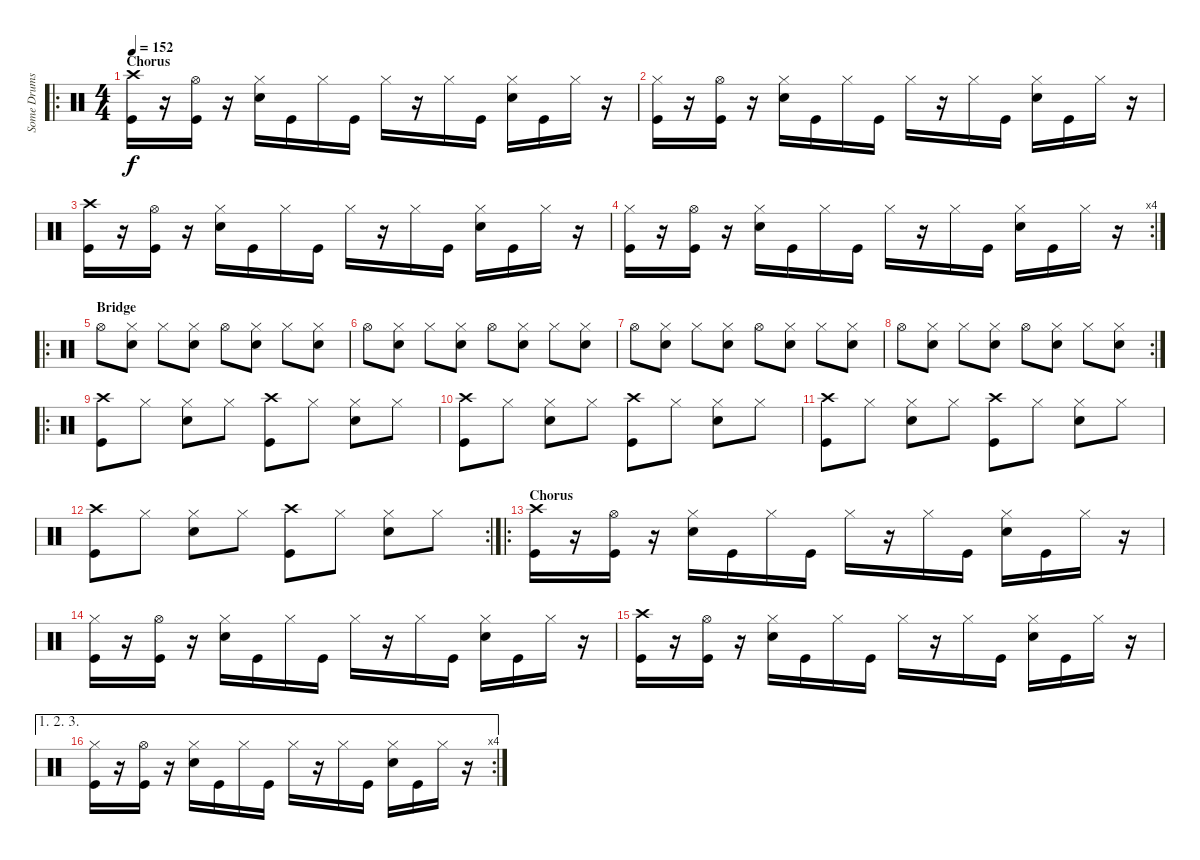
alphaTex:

\track ("Some Drums" "Some Drums") {instrument percussion}
\staff {score}
\articulation defaults
\ro
\ts (4 4)
\section ("" "Chorus")
\tempo 152
\clef neutral
\ks c
("Crash high (hit)" "Kick (hit)").16{dy f} r.16 ("Hi-Hat (open)" "Kick (hit)").16 r.16 ("Hi-Hat (closed)" "Electric Snare (hit)").16 "Kick (hit)".16 "Hi-Hat (closed)".16 "Kick (hit)".16 "Hi-Hat (closed)".16 r.16 "Hi-Hat (closed)".16 "Kick (hit)".16 ("Hi-Hat (closed)" "Electric Snare (hit)").16 "Kick (hit)".16 "Hi-Hat (closed)".16 r.16 |
("Hi-Hat (closed)" "Kick (hit)").16 r.16 ("Hi-Hat (open)" "Kick (hit)").16 r.16 ("Hi-Hat (closed)" "Electric Snare (hit)").16 "Kick (hit)".16 "Hi-Hat (closed)".16 "Kick (hit)".16 "Hi-Hat (closed)".16 r.16 "Hi-Hat (closed)".16 "Kick (hit)".16 ("Hi-Hat (closed)" "Electric Snare (hit)").16 "Kick (hit)".16 "Hi-Hat (closed)".16 r.16 |
("Crash high (hit)" "Kick (hit)").16 r.16 ("Hi-Hat (open)" "Kick (hit)").16 r.16 ("Hi-Hat (closed)" "Electric Snare (hit)").16 "Kick (hit)".16 "Hi-Hat (closed)".16 "Kick (hit)".16 "Hi-Hat (closed)".16 r.16 "Hi-Hat (closed)".16 "Kick (hit)".16 ("Hi-Hat (closed)" "Electric Snare (hit)").16 "Kick (hit)".16 "Hi-Hat (closed)".16 r.16 |
\rc 4
("Hi-Hat (closed)" "Kick (hit)").16 r.16 ("Hi-Hat (open)" "Kick (hit)").16 r.16 ("Hi-Hat (closed)" "Electric Snare (hit)").16 "Kick (hit)".16 "Hi-Hat (closed)".16 "Kick (hit)".16 "Hi-Hat (closed)".16 r.16 "Hi-Hat (closed)".16 "Kick (hit)".16 ("Hi-Hat (closed)" "Electric Snare (hit)").16 "Kick (hit)".16 "Hi-Hat (closed)".16 r.16 |
\ro
\section ("" "Bridge")
"Hi-Hat (open)".8 ("Hi-Hat (closed)" "Electric Snare (hit)").8 "Hi-Hat (closed)".8 ("Hi-Hat (closed)" "Electric Snare (hit)").8 "Hi-Hat (open)".8 ("Hi-Hat (closed)" "Electric Snare (hit)").8 "Hi-Hat (closed)".8 ("Hi-Hat (closed)" "Electric Snare (hit)").8 |
"Hi-Hat (open)".8 ("Hi-Hat (closed)" "Electric Snare (hit)").8 "Hi-Hat (closed)".8 ("Hi-Hat (closed)" "Electric Snare (hit)").8 "Hi-Hat (open)".8 ("Hi-Hat (closed)" "Electric Snare (hit)").8 "Hi-Hat (closed)".8 ("Hi-Hat (closed)" "Electric Snare (hit)").8 |
"Hi-Hat (open)".8 ("Hi-Hat (closed)" "Electric Snare (hit)").8 "Hi-Hat (closed)".8 ("Hi-Hat (closed)" "Electric Snare (hit)").8 "Hi-Hat (open)".8 ("Hi-Hat (closed)" "Electric Snare (hit)").8 "Hi-Hat (closed)".8 ("Hi-Hat (closed)" "Electric Snare (hit)").8 |
\rc 2 "Hi-Hat (open)".8
("Hi-Hat (closed)" "Electric Snare (hit)").8 "Hi-Hat (closed)".8 ("Hi-Hat (closed)" "Electric Snare (hit)").8 "Hi-Hat (open)".8 ("Hi-Hat (closed)" "Electric Snare (hit)").8 "Hi-Hat (closed)".8 ("Hi-Hat (closed)" "Electric Snare (hit)").8 |
\ro
("Crash high (hit)" "Kick (hit)").8 "Hi-Hat (closed)".8 ("Hi-Hat (closed)" "Electric Snare (hit)").8 "Hi-Hat (closed)".8 ("Crash high (hit)" "Kick (hit)").8 "Hi-Hat (closed)".8 ("Hi-Hat (closed)" "Electric Snare (hit)").8 "Hi-Hat (closed)".8 |
("Crash high (hit)" "Kick (hit)").8 "Hi-Hat (closed)".8 ("Hi-Hat (closed)" "Electric Snare (hit)").8 "Hi-Hat (closed)".8 ("Crash high (hit)" "Kick (hit)").8 "Hi-Hat (closed)".8 ("Hi-Hat (closed)" "Electric Snare (hit)").8 "Hi-Hat (closed)".8 |
("Crash high (hit)" "Kick (hit)").8 "Hi-Hat (closed)".8 ("Hi-Hat (closed)" "Electric Snare (hit)").8 "Hi-Hat (closed)".8 ("Crash high (hit)" "Kick (hit)").8 "Hi-Hat (closed)".8 ("Hi-Hat (closed)" "Electric Snare (hit)").8 "Hi-Hat (closed)".8 |
\rc 2
("Crash high (hit)" "Kick (hit)").8 "Hi-Hat (closed)".8 ("Hi-Hat (closed)" "Electric Snare (hit)").8 "Hi-Hat (closed)".8 ("Crash high (hit)" "Kick (hit)").8 "Hi-Hat (closed)".8 ("Hi-Hat (closed)" "Electric Snare (hit)").8 "Hi-Hat (closed)".8 |
\ro
\section ("" "Chorus")
("Crash high (hit)" "Kick (hit)").16 r.16 ("Hi-Hat (open)" "Kick (hit)").16 r.16 ("Hi-Hat (closed)" "Electric Snare (hit)").16 "Kick (hit)".16 "Hi-Hat (closed)".16 "Kick (hit)".16 "Hi-Hat (closed)".16 r.16 "Hi-Hat (closed)".16 "Kick (hit)".16 ("Hi-Hat (closed)" "Electric Snare (hit)").16 "Kick (hit)".16 "Hi-Hat (closed)".16 r.16 |
("Hi-Hat (closed)" "Kick (hit)").16 r.16 ("Hi-Hat (open)" "Kick (hit)").16 r.16 ("Hi-Hat (closed)" "Electric Snare (hit)").16 "Kick (hit)".16 "Hi-Hat (closed)".16 "Kick (hit)".16 "Hi-Hat (closed)".16 r.16 "Hi-Hat (closed)".16 "Kick (hit)".16 ("Hi-Hat (closed)" "Electric Snare (hit)").16 "Kick (hit)".16 "Hi-Hat (closed)".16 r.16 |
("Crash high (hit)" "Kick (hit)").16 r.16 ("Hi-Hat (open)" "Kick (hit)").16 r.16 ("Hi-Hat (closed)" "Electric Snare (hit)").16 "Kick (hit)".16 "Hi-Hat (closed)".16 "Kick (hit)".16 "Hi-Hat (closed)".16 r.16 "Hi-Hat (closed)".16 "Kick (hit)".16 ("Hi-Hat (closed)" "Electric Snare (hit)").16 "Kick (hit)".16 "Hi-Hat (closed)".16 r.16 |
\ae (1 2 3)
\rc 4
("Hi-Hat (closed)" "Kick (hit)").16 r.16 ("Hi-Hat (open)" "Kick (hit)").16 r.16 ("Hi-Hat (closed)" "Electric Snare (hit)").16 "Kick (hit)".16 "Hi-Hat (closed)".16 "Kick (hit)".16 "Hi-Hat (closed)".16 r.16 "Hi-Hat (closed)".16 "Kick (hit)".16 ("Hi-Hat (closed)" "Electric Snare (hit)").16 "Kick (hit)".16 "Hi-Hat (closed)".16 r.16
